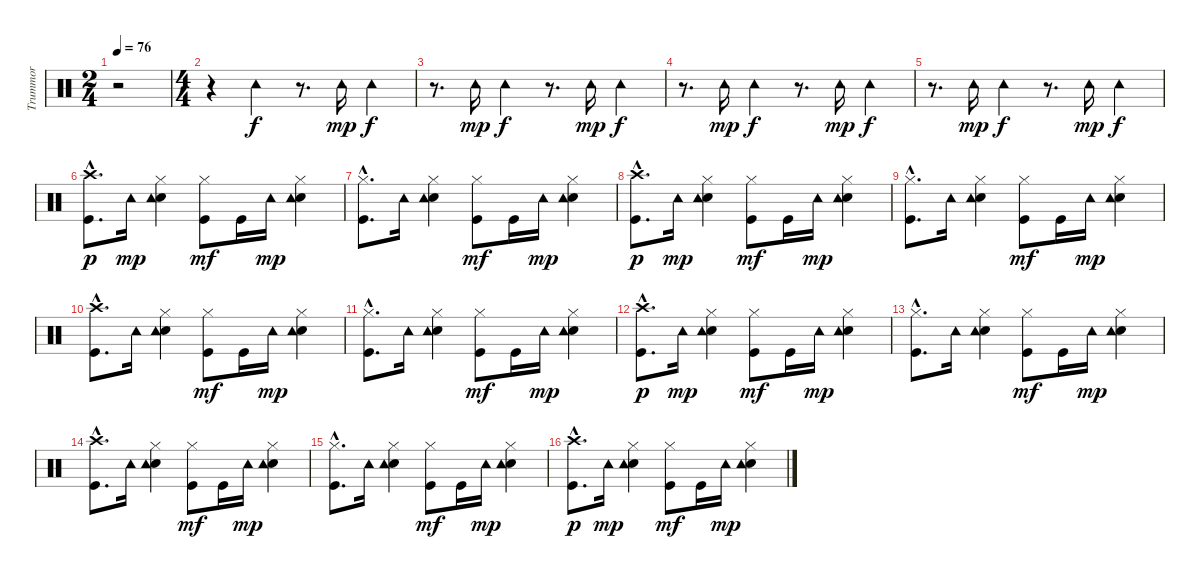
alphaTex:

\track ("Trummor" "Trummor") {instrument percussion}
\staff {score}
\articulation defaults
\ts (2 4)
\tempo 76
\clef neutral
\ks c
r.2{dy f} |
\ts (4 4)
r.4 "Tambourine (hit)".4 r.8{d} "Tambourine (hit)".16{dy mp} "Tambourine (hit)".4{dy f} |
r.8{d} "Tambourine (hit)".16{dy mp} "Tambourine (hit)".4{dy f} r.8{d} "Tambourine (hit)".16{dy mp} "Tambourine (hit)".4{dy f} |
r.8{d} "Tambourine (hit)".16{dy mp} "Tambourine (hit)".4{dy f} r.8{d} "Tambourine (hit)".16{dy mp} "Tambourine (hit)".4{dy f} |
r.8{d} "Tambourine (hit)".16{dy mp} "Tambourine (hit)".4{dy f} r.8{d} "Tambourine (hit)".16{dy mp} "Tambourine (hit)".4{dy f} |
("Crash high (hit)"{hac} "Kick (hit)"{hac}).8{d dy p} "Tambourine (hit)".16{dy mp} ("Hi-Hat (closed)" "Snare (hit) 2" "Tambourine (hit)").4 ("Hi-Hat (closed)" "Kick (hit)").8{dy mf} "Kick (hit)".16 "Tambourine (hit)".16{dy mp} ("Hi-Hat (closed)" "Snare (hit) 2" "Tambourine (hit)").4 |
("Hi-Hat (closed)"{hac} "Kick (hit)"{hac}).8{d} "Tambourine (hit)".16 ("Hi-Hat (closed)" "Snare (hit) 2" "Tambourine (hit)").4 ("Hi-Hat (closed)" "Kick (hit)").8{dy mf} "Kick (hit)".16 "Tambourine (hit)".16{dy mp} ("Hi-Hat (closed)" "Snare (hit) 2" "Tambourine (hit)").4 |
("Crash high (hit)"{hac} "Kick (hit)"{hac}).8{d dy p} "Tambourine (hit)".16{dy mp} ("Hi-Hat (closed)" "Snare (hit) 2" "Tambourine (hit)").4 ("Hi-Hat (closed)" "Kick (hit)").8{dy mf} "Kick (hit)".16 "Tambourine (hit)".16{dy mp} ("Hi-Hat (closed)" "Snare (hit) 2" "Tambourine (hit)").4 |
("Hi-Hat (closed)"{hac} "Kick (hit)"{hac}).8{d} "Tambourine (hit)".16 ("Hi-Hat (closed)" "Snare (hit) 2" "Tambourine (hit)").4 ("Hi-Hat (closed)" "Kick (hit)").8{dy mf} "Kick (hit)".16 "Tambourine (hit)".16{dy mp} ("Hi-Hat (closed)" "Snare (hit) 2" "Tambourine (hit)").4 |
("Crash high (hit)"{hac} "Kick (hit)"{hac}).8{d} "Tambourine (hit)".16 ("Hi-Hat (closed)" "Snare (hit) 2" "Tambourine (hit)").4 ("Hi-Hat (closed)" "Kick (hit)").8{dy mf} "Kick (hit)".16 "Tambourine (hit)".16{dy mp} ("Hi-Hat (closed)" "Snare (hit) 2" "Tambourine (hit)").4 |
("Hi-Hat (closed)"{hac} "Kick (hit)"{hac}).8{d} "Tambourine (hit)".16 ("Hi-Hat (closed)" "Snare (hit) 2" "Tambourine (hit)").4 ("Hi-Hat (closed)" "Kick (hit)").8{dy mf} "Kick (hit)".16 "Tambourine (hit)".16{dy mp} ("Hi-Hat (closed)" "Snare (hit) 2" "Tambourine (hit)").4 |
("Crash high (hit)"{hac} "Kick (hit)"{hac}).8{d dy p} "Tambourine (hit)".16{dy mp} ("Hi-Hat (closed)" "Snare (hit) 2" "Tambourine (hit)").4 ("Hi-Hat (closed)" "Kick (hit)").8{dy mf} "Kick (hit)".16 "Tambourine (hit)".16{dy mp} ("Hi-Hat (closed)" "Snare (hit) 2" "Tambourine (hit)").4 |
("Hi-Hat (closed)"{hac} "Kick (hit)"{hac}).8{d} "Tambourine (hit)".16 ("Hi-Hat (closed)" "Snare (hit) 2" "Tambourine (hit)").4 ("Hi-Hat (closed)" "Kick (hit)").8{dy mf} "Kick (hit)".16 "Tambourine (hit)".16{dy mp} ("Hi-Hat (closed)" "Snare (hit) 2" "Tambourine (hit)").4 |
("Crash high (hit)"{hac} "Kick (hit)"{hac}).8{d} "Tambourine (hit)".16 ("Hi-Hat (closed)" "Snare (hit) 2" "Tambourine (hit)").4 ("Hi-Hat (closed)" "Kick (hit)").8{dy mf} "Kick (hit)".16 "Tambourine (hit)".16{dy mp} ("Hi-Hat (closed)" "Snare (hit) 2" "Tambourine (hit)").4 |
("Hi-Hat (closed)"{hac} "Kick (hit)"{hac}).8{d} "Tambourine (hit)".16 ("Hi-Hat (closed)" "Snare (hit) 2" "Tambourine (hit)").4 ("Hi-Hat (closed)" "Kick (hit)").8{dy mf} "Kick (hit)".16 "Tambourine (hit)".16{dy mp} ("Hi-Hat (closed)" "Snare (hit) 2" "Tambourine (hit)").4 |
("Crash high (hit)"{hac} "Kick (hit)"{hac}).8{d dy p} "Tambourine (hit)".16{dy mp} ("Hi-Hat (closed)" "Snare (hit) 2" "Tambourine (hit)").4 ("Hi-Hat (closed)" "Kick (hit)").8{dy mf} "Kick (hit)".16 "Tambourine (hit)".16{dy mp} ("Hi-Hat (closed)" "Snare (hit) 2" "Tambourine (hit)").4
